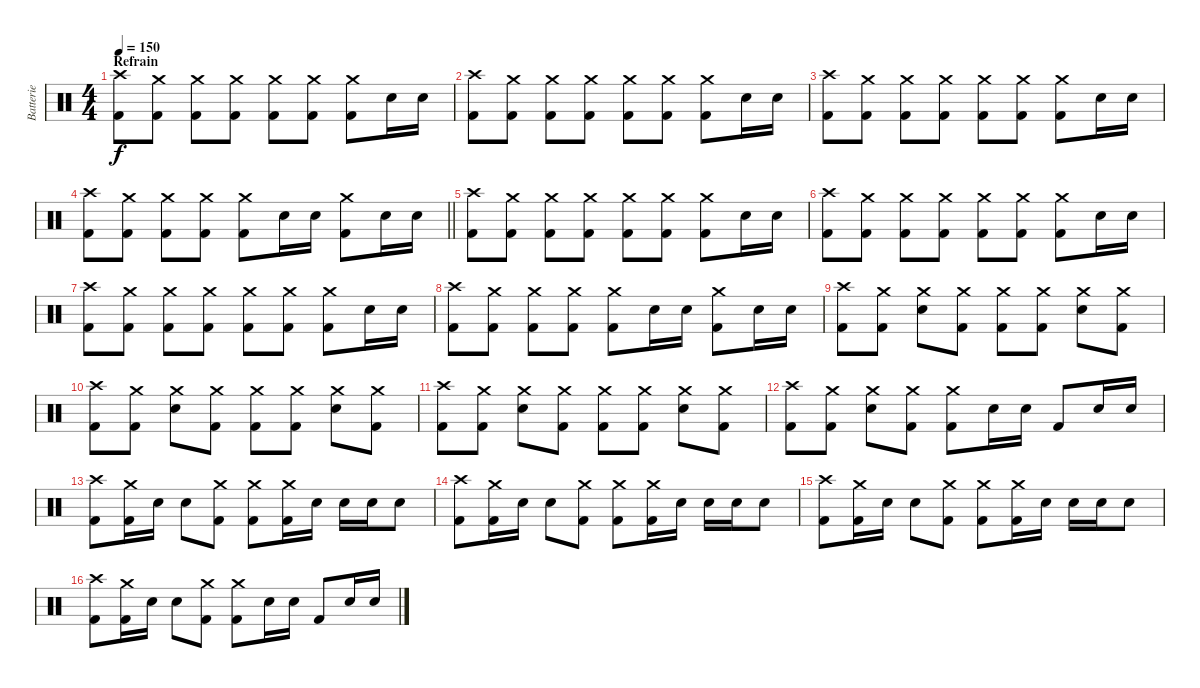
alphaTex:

\track ("Batterie" "Batterie") {instrument percussion}
\staff {score}
\articulation defaults
\ts (4 4)
\section ("" "Refrain")
\tempo 150
\clef neutral
\ks c
("Crash high (hit)" "Kick (hit) 2").8{dy f} ("Crash medium (hit)" "Kick (hit) 2").8 ("Crash medium (hit)" "Kick (hit) 2").8 ("Crash medium (hit)" "Kick (hit) 2").8 ("Crash medium (hit)" "Kick (hit) 2").8 ("Crash medium (hit)" "Kick (hit) 2").8 ("Crash medium (hit)" "Kick (hit) 2").8 "Electric Snare (hit)".16 "Electric Snare (hit)".16 |
("Crash high (hit)" "Kick (hit) 2").8 ("Crash medium (hit)" "Kick (hit) 2").8 ("Crash medium (hit)" "Kick (hit) 2").8 ("Crash medium (hit)" "Kick (hit) 2").8 ("Crash medium (hit)" "Kick (hit) 2").8 ("Crash medium (hit)" "Kick (hit) 2").8 ("Crash medium (hit)" "Kick (hit) 2").8 "Electric Snare (hit)".16 "Electric Snare (hit)".16 |
("Crash high (hit)" "Kick (hit) 2").8 ("Crash medium (hit)" "Kick (hit) 2").8 ("Crash medium (hit)" "Kick (hit) 2").8 ("Crash medium (hit)" "Kick (hit) 2").8 ("Crash medium (hit)" "Kick (hit) 2").8 ("Crash medium (hit)" "Kick (hit) 2").8 ("Crash medium (hit)" "Kick (hit) 2").8 "Electric Snare (hit)".16 "Electric Snare (hit)".16 |
\barLineRight lightlight
("Crash high (hit)" "Kick (hit) 2").8 ("Crash medium (hit)" "Kick (hit) 2").8 ("Crash medium (hit)" "Kick (hit) 2").8 ("Crash medium (hit)" "Kick (hit) 2").8 ("Crash medium (hit)" "Kick (hit) 2").8 "Electric Snare (hit)".16 "Electric Snare (hit)".16 ("Crash medium (hit)" "Kick (hit) 2").8 "Electric Snare (hit)".16 "Electric Snare (hit)".16 |
("Crash high (hit)" "Kick (hit) 2").8 ("Crash medium (hit)" "Kick (hit) 2").8 ("Crash medium (hit)" "Kick (hit) 2").8 ("Crash medium (hit)" "Kick (hit) 2").8 ("Crash medium (hit)" "Kick (hit) 2").8 ("Crash medium (hit)" "Kick (hit) 2").8 ("Crash medium (hit)" "Kick (hit) 2").8 "Electric Snare (hit)".16 "Electric Snare (hit)".16 |
("Crash high (hit)" "Kick (hit) 2").8 ("Crash medium (hit)" "Kick (hit) 2").8 ("Crash medium (hit)" "Kick (hit) 2").8 ("Crash medium (hit)" "Kick (hit) 2").8 ("Crash medium (hit)" "Kick (hit) 2").8 ("Crash medium (hit)" "Kick (hit) 2").8 ("Crash medium (hit)" "Kick (hit) 2").8 "Electric Snare (hit)".16 "Electric Snare (hit)".16 |
("Crash high (hit)" "Kick (hit) 2").8 ("Crash medium (hit)" "Kick (hit) 2").8 ("Crash medium (hit)" "Kick (hit) 2").8 ("Crash medium (hit)" "Kick (hit) 2").8 ("Crash medium (hit)" "Kick (hit) 2").8 ("Crash medium (hit)" "Kick (hit) 2").8 ("Crash medium (hit)" "Kick (hit) 2").8 "Electric Snare (hit)".16 "Electric Snare (hit)".16 |
("Crash high (hit)" "Kick (hit) 2").8 ("Crash medium (hit)" "Kick (hit) 2").8 ("Crash medium (hit)" "Kick (hit) 2").8 ("Crash medium (hit)" "Kick (hit) 2").8 ("Crash medium (hit)" "Kick (hit) 2").8 "Electric Snare (hit)".16 "Electric Snare (hit)".16 ("Crash medium (hit)" "Kick (hit) 2").8 "Electric Snare (hit)".16 "Electric Snare (hit)".16 |
("Crash high (hit)" "Kick (hit) 2").8 ("Crash medium (hit)" "Kick (hit) 2").8 ("Crash medium (hit)" "Electric Snare (hit)").8 ("Crash medium (hit)" "Kick (hit) 2").8 ("Crash medium (hit)" "Kick (hit) 2").8 ("Crash medium (hit)" "Kick (hit) 2").8 ("Crash medium (hit)" "Electric Snare (hit)").8 ("Crash medium (hit)" "Kick (hit) 2").8 |
("Crash high (hit)" "Kick (hit) 2").8 ("Crash medium (hit)" "Kick (hit) 2").8 ("Crash medium (hit)" "Electric Snare (hit)").8 ("Crash medium (hit)" "Kick (hit) 2").8 ("Crash medium (hit)" "Kick (hit) 2").8 ("Crash medium (hit)" "Kick (hit) 2").8 ("Crash medium (hit)" "Electric Snare (hit)").8 ("Crash medium (hit)" "Kick (hit) 2").8 |
("Crash high (hit)" "Kick (hit) 2").8 ("Crash medium (hit)" "Kick (hit) 2").8 ("Crash medium (hit)" "Electric Snare (hit)").8 ("Crash medium (hit)" "Kick (hit) 2").8 ("Crash medium (hit)" "Kick (hit) 2").8 ("Crash medium (hit)" "Kick (hit) 2").8 ("Crash medium (hit)" "Electric Snare (hit)").8 ("Crash medium (hit)" "Kick (hit) 2").8 |
("Crash high (hit)" "Kick (hit) 2").8 ("Crash medium (hit)" "Kick (hit) 2").8 ("Crash medium (hit)" "Electric Snare (hit)").8 ("Crash medium (hit)" "Kick (hit) 2").8 ("Crash medium (hit)" "Kick (hit) 2").8 "Electric Snare (hit)".16 "Electric Snare (hit)".16 "Kick (hit) 2".8 "Electric Snare (hit)".16 "Electric Snare (hit)".16 |
("Crash high (hit)" "Kick (hit) 2").8 ("Crash medium (hit)" "Kick (hit) 2").16 "Electric Snare (hit)".16 "Electric Snare (hit)".8 ("Crash medium (hit)" "Kick (hit) 2").8 ("Crash medium (hit)" "Kick (hit) 2").8 ("Crash medium (hit)" "Kick (hit) 2").16 "Electric Snare (hit)".16 "Electric Snare (hit)".16 "Electric Snare (hit)".16 "Electric Snare (hit)".8 |
("Crash high (hit)" "Kick (hit) 2").8 ("Crash medium (hit)" "Kick (hit) 2").16 "Electric Snare (hit)".16 "Electric Snare (hit)".8 ("Crash medium (hit)" "Kick (hit) 2").8 ("Crash medium (hit)" "Kick (hit) 2").8 ("Crash medium (hit)" "Kick (hit) 2").16 "Electric Snare (hit)".16 "Electric Snare (hit)".16 "Electric Snare (hit)".16 "Electric Snare (hit)".8 |
("Crash high (hit)" "Kick (hit) 2").8 ("Crash medium (hit)" "Kick (hit) 2").16 "Electric Snare (hit)".16 "Electric Snare (hit)".8 ("Crash medium (hit)" "Kick (hit) 2").8 ("Crash medium (hit)" "Kick (hit) 2").8 ("Crash medium (hit)" "Kick (hit) 2").16 "Electric Snare (hit)".16 "Electric Snare (hit)".16 "Electric Snare (hit)".16 "Electric Snare (hit)".8 |
("Crash high (hit)" "Kick (hit) 2").8 ("Crash medium (hit)" "Kick (hit) 2").16 "Electric Snare (hit)".16 "Electric Snare (hit)".8 ("Crash medium (hit)" "Kick (hit) 2").8 ("Crash medium (hit)" "Kick (hit) 2").8 "Electric Snare (hit)".16 "Electric Snare (hit)".16 "Kick (hit) 2".8 "Electric Snare (hit)".16 "Electric Snare (hit)".16
